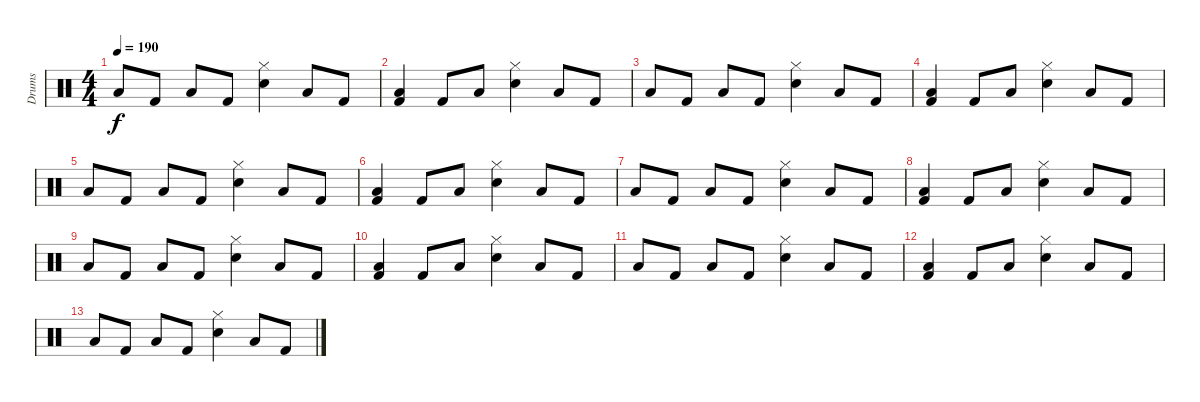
\track ("Drums" "Drums") {instrument percussion}
\staff {score}
\articulation defaults
\ts (4 4)
\tempo 190
\clef neutral
\ks c "Low Floor Tom (hit)".8{dy f} "Kick (hit) 2".8 "Low Floor Tom (hit)".8 "Kick (hit) 2".8
("Snare (hit) 2" "Hi-Hat (closed)").4 "Low Floor Tom (hit)".8 "Kick (hit) 2".8 |
("Kick (hit) 2" "Low Floor Tom (hit)").4 "Kick (hit) 2".8 "Low Floor Tom (hit)".8 ("Snare (hit) 2" "Hi-Hat (closed)").4 "Low Floor Tom (hit)".8 "Kick (hit) 2".8 |
"Low Floor Tom (hit)".8 "Kick (hit) 2".8 "Low Floor Tom (hit)".8 "Kick (hit) 2".8 ("Snare (hit) 2" "Hi-Hat (closed)").4 "Low Floor Tom (hit)".8 "Kick (hit) 2".8 |
("Kick (hit) 2" "Low Floor Tom (hit)").4 "Kick (hit) 2".8 "Low Floor Tom (hit)".8 ("Snare (hit) 2" "Hi-Hat (closed)").4 "Low Floor Tom (hit)".8 "Kick (hit) 2".8 |
"Low Floor Tom (hit)".8 "Kick (hit) 2".8 "Low Floor Tom (hit)".8 "Kick (hit) 2".8 ("Snare (hit) 2" "Hi-Hat (closed)").4 "Low Floor Tom (hit)".8 "Kick (hit) 2".8 |
("Kick (hit) 2" "Low Floor Tom (hit)").4 "Kick (hit) 2".8 "Low Floor Tom (hit)".8 ("Snare (hit) 2" "Hi-Hat (closed)").4 "Low Floor Tom (hit)".8 "Kick (hit) 2".8 |
"Low Floor Tom (hit)".8 "Kick (hit) 2".8 "Low Floor Tom (hit)".8 "Kick (hit) 2".8 ("Snare (hit) 2" "Hi-Hat (closed)").4 "Low Floor Tom (hit)".8 "Kick (hit) 2".8 |
("Kick (hit) 2" "Low Floor Tom (hit)").4 "Kick (hit) 2".8 "Low Floor Tom (hit)".8 ("Snare (hit) 2" "Hi-Hat (closed)").4 "Low Floor Tom (hit)".8 "Kick (hit) 2".8 |
"Low Floor Tom (hit)".8 "Kick (hit) 2".8 "Low Floor Tom (hit)".8 "Kick (hit) 2".8 ("Snare (hit) 2" "Hi-Hat (closed)").4 "Low Floor Tom (hit)".8 "Kick (hit) 2".8 |
("Kick (hit) 2" "Low Floor Tom (hit)").4 "Kick (hit) 2".8 "Low Floor Tom (hit)".8 ("Snare (hit) 2" "Hi-Hat (closed)").4 "Low Floor Tom (hit)".8 "Kick (hit) 2".8 |
"Low Floor Tom (hit)".8 "Kick (hit) 2".8 "Low Floor Tom (hit)".8 "Kick (hit) 2".8 ("Snare (hit) 2" "Hi-Hat (closed)").4 "Low Floor Tom (hit)".8 "Kick (hit) 2".8 |
("Kick (hit) 2" "Low Floor Tom (hit)").4 "Kick (hit) 2".8 "Low Floor Tom (hit)".8 ("Snare (hit) 2" "Hi-Hat (closed)").4 "Low Floor Tom (hit)".8 "Kick (hit) 2".8 |
"Low Floor Tom (hit)".8 "Kick (hit) 2".8 "Low Floor Tom (hit)".8 "Kick (hit) 2".8 ("Snare (hit) 2" "Hi-Hat (closed)").4 "Low Floor Tom (hit)".8 "Kick (hit) 2".8
